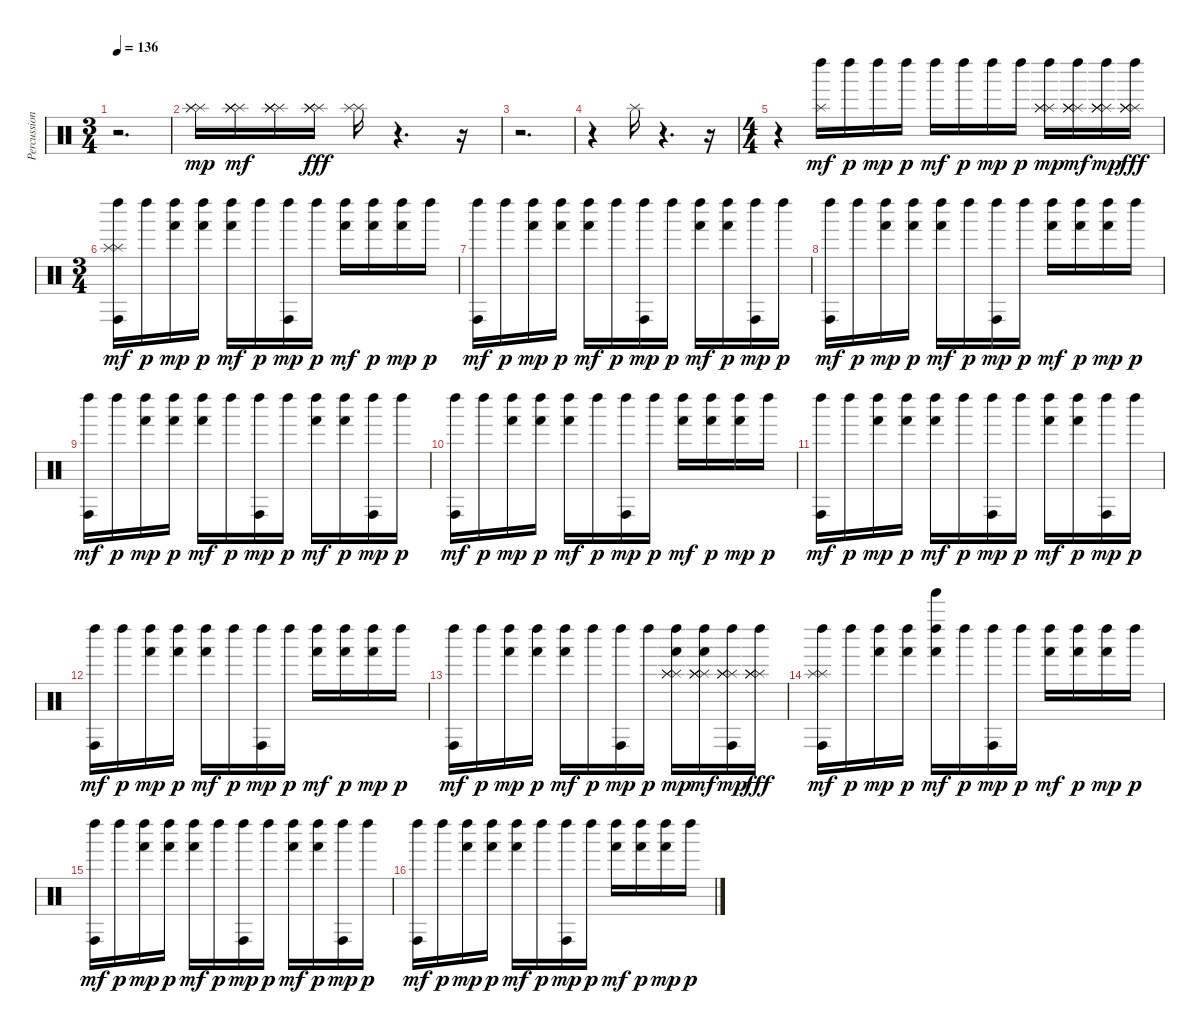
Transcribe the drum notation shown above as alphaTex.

\track ("Percussion" "Percussion") {instrument percussion}
\staff {score}
\articulation defaults
\ts (3 4)
\tempo 136
\clef neutral
\ks c
r.2{d dy f} |
("Splash (hit)" "Splash (hit)" "Splash (hit)").16{dy mp} ("Splash (hit)" "Splash (hit)" "Splash (hit)" "Splash (hit)").16{dy mf} ("Splash (hit)" "Splash (hit)" "Splash (hit)" "Splash (hit)").16 ("Splash (hit)" "Splash (hit)" "Splash (hit)" "Splash (hit)").16{dy fff} ("Splash (hit)" "Splash (hit)").16 r.4{d} r.16 |
r.2{d} |
r.4 "Splash (hit)".16 r.4{d} r.16 |
\ts (4 4)
r.4 ("Splash (hit)" "Left Maraca (hit)").16{dy mf} "Left Maraca (hit)".16{dy p} "Left Maraca (hit)".16{dy mp} "Left Maraca (hit)".16{dy p} "Left Maraca (hit)".16{dy mf} "Left Maraca (hit)".16{dy p} "Left Maraca (hit)".16{dy mp} "Left Maraca (hit)".16{dy p} ("Splash (hit)" "Left Maraca (hit)" "Splash (hit)" "Splash (hit)").16{dy mp} ("Splash (hit)" "Splash (hit)" "Left Maraca (hit)" "Splash (hit)" "Splash (hit)").16{dy mf} ("Splash (hit)" "Splash (hit)" "Left Maraca (hit)" "Splash (hit)" "Splash (hit)").16{dy mp} ("Splash (hit)" "Splash (hit)" "Left Maraca (hit)" "Splash (hit)" "Splash (hit)").16{dy fff} |
\ts (3 4)
("Splash (hit)" "Splash (hit)" "Conga high (hit)" "Left Maraca (hit)").16{dy mf} "Left Maraca (hit)".16{dy p} ("Hand (hit)" "Left Maraca (hit)").16{dy mp} ("Hand (hit)" "Left Maraca (hit)").16{dy p} ("Hand (hit)" "Left Maraca (hit)").16{dy mf} "Left Maraca (hit)".16{dy p} ("Conga high (hit)" "Left Maraca (hit)").16{dy mp} "Left Maraca (hit)".16{dy p} ("Hand (hit)" "Left Maraca (hit)").16{dy mf} ("Hand (hit)" "Left Maraca (hit)").16{dy p} ("Hand (hit)" "Left Maraca (hit)").16{dy mp} "Left Maraca (hit)".16{dy p} |
("Conga high (hit)" "Left Maraca (hit)").16{dy mf} "Left Maraca (hit)".16{dy p} ("Hand (hit)" "Left Maraca (hit)").16{dy mp} ("Hand (hit)" "Left Maraca (hit)").16{dy p} ("Hand (hit)" "Left Maraca (hit)").16{dy mf} "Left Maraca (hit)".16{dy p} ("Conga high (hit)" "Left Maraca (hit)").16{dy mp} "Left Maraca (hit)".16{dy p} ("Hand (hit)" "Left Maraca (hit)").16{dy mf} ("Hand (hit)" "Left Maraca (hit)").16{dy p} ("Conga high (hit)" "Left Maraca (hit)").16{dy mp} "Left Maraca (hit)".16{dy p} |
("Conga high (hit)" "Left Maraca (hit)").16{dy mf} "Left Maraca (hit)".16{dy p} ("Hand (hit)" "Left Maraca (hit)").16{dy mp} ("Hand (hit)" "Left Maraca (hit)").16{dy p} ("Hand (hit)" "Left Maraca (hit)").16{dy mf} "Left Maraca (hit)".16{dy p} ("Conga high (hit)" "Left Maraca (hit)").16{dy mp} "Left Maraca (hit)".16{dy p} ("Hand (hit)" "Left Maraca (hit)").16{dy mf} ("Hand (hit)" "Left Maraca (hit)").16{dy p} ("Hand (hit)" "Left Maraca (hit)").16{dy mp} "Left Maraca (hit)".16{dy p} |
("Conga high (hit)" "Left Maraca (hit)").16{dy mf} "Left Maraca (hit)".16{dy p} ("Hand (hit)" "Left Maraca (hit)").16{dy mp} ("Hand (hit)" "Left Maraca (hit)").16{dy p} ("Hand (hit)" "Left Maraca (hit)").16{dy mf} "Left Maraca (hit)".16{dy p} ("Conga high (hit)" "Left Maraca (hit)").16{dy mp} "Left Maraca (hit)".16{dy p} ("Hand (hit)" "Left Maraca (hit)").16{dy mf} ("Hand (hit)" "Left Maraca (hit)").16{dy p} ("Conga high (hit)" "Left Maraca (hit)").16{dy mp} "Left Maraca (hit)".16{dy p} |
("Conga high (hit)" "Left Maraca (hit)").16{dy mf} "Left Maraca (hit)".16{dy p} ("Hand (hit)" "Left Maraca (hit)").16{dy mp} ("Hand (hit)" "Left Maraca (hit)").16{dy p} ("Hand (hit)" "Left Maraca (hit)").16{dy mf} "Left Maraca (hit)".16{dy p} ("Conga high (hit)" "Left Maraca (hit)").16{dy mp} "Left Maraca (hit)".16{dy p} ("Hand (hit)" "Left Maraca (hit)").16{dy mf} ("Hand (hit)" "Left Maraca (hit)").16{dy p} ("Hand (hit)" "Left Maraca (hit)").16{dy mp} "Left Maraca (hit)".16{dy p} |
("Conga high (hit)" "Left Maraca (hit)").16{dy mf} "Left Maraca (hit)".16{dy p} ("Hand (hit)" "Left Maraca (hit)").16{dy mp} ("Hand (hit)" "Left Maraca (hit)").16{dy p} ("Hand (hit)" "Left Maraca (hit)").16{dy mf} "Left Maraca (hit)".16{dy p} ("Conga high (hit)" "Left Maraca (hit)").16{dy mp} "Left Maraca (hit)".16{dy p} ("Hand (hit)" "Left Maraca (hit)").16{dy mf} ("Hand (hit)" "Left Maraca (hit)").16{dy p} ("Conga high (hit)" "Left Maraca (hit)").16{dy mp} "Left Maraca (hit)".16{dy p} |
("Conga high (hit)" "Left Maraca (hit)").16{dy mf} "Left Maraca (hit)".16{dy p} ("Hand (hit)" "Left Maraca (hit)").16{dy mp} ("Hand (hit)" "Left Maraca (hit)").16{dy p} ("Hand (hit)" "Left Maraca (hit)").16{dy mf} "Left Maraca (hit)".16{dy p} ("Conga high (hit)" "Left Maraca (hit)").16{dy mp} "Left Maraca (hit)".16{dy p} ("Hand (hit)" "Left Maraca (hit)").16{dy mf} ("Hand (hit)" "Left Maraca (hit)").16{dy p} ("Hand (hit)" "Left Maraca (hit)").16{dy mp} "Left Maraca (hit)".16{dy p} |
("Conga high (hit)" "Left Maraca (hit)").16{dy mf} "Left Maraca (hit)".16{dy p} ("Hand (hit)" "Left Maraca (hit)").16{dy mp} ("Hand (hit)" "Left Maraca (hit)").16{dy p} ("Hand (hit)" "Left Maraca (hit)").16{dy mf} "Left Maraca (hit)".16{dy p} ("Conga high (hit)" "Left Maraca (hit)").16{dy mp} "Left Maraca (hit)".16{dy p} ("Hand (hit)" "Splash (hit)" "Left Maraca (hit)" "Splash (hit)" "Splash (hit)").16{dy mp} ("Splash (hit)" "Hand (hit)" "Splash (hit)" "Left Maraca (hit)" "Splash (hit)" "Splash (hit)").16{dy mf} ("Splash (hit)" "Conga high (hit)" "Splash (hit)" "Left Maraca (hit)" "Splash (hit)" "Splash (hit)").16{dy mp} ("Splash (hit)" "Splash (hit)" "Left Maraca (hit)" "Splash (hit)" "Splash (hit)").16{dy fff} |
("Splash (hit)" "Splash (hit)" "Conga high (hit)" "Left Maraca (hit)").16{dy mf} "Left Maraca (hit)".16{dy p} ("Hand (hit)" "Left Maraca (hit)").16{dy mp} ("Hand (hit)" "Left Maraca (hit)").16{dy p} ("Hand (hit)" "Tinkle Bell (hit)" "Left Maraca (hit)").16{dy mf} "Left Maraca (hit)".16{dy p} ("Conga high (hit)" "Left Maraca (hit)").16{dy mp} "Left Maraca (hit)".16{dy p} ("Hand (hit)" "Left Maraca (hit)").16{dy mf} ("Hand (hit)" "Left Maraca (hit)").16{dy p} ("Hand (hit)" "Left Maraca (hit)").16{dy mp} "Left Maraca (hit)".16{dy p} |
("Conga high (hit)" "Left Maraca (hit)").16{dy mf} "Left Maraca (hit)".16{dy p} ("Hand (hit)" "Left Maraca (hit)").16{dy mp} ("Hand (hit)" "Left Maraca (hit)").16{dy p} ("Hand (hit)" "Left Maraca (hit)").16{dy mf} "Left Maraca (hit)".16{dy p} ("Conga high (hit)" "Left Maraca (hit)").16{dy mp} "Left Maraca (hit)".16{dy p} ("Hand (hit)" "Left Maraca (hit)").16{dy mf} ("Hand (hit)" "Left Maraca (hit)").16{dy p} ("Conga high (hit)" "Left Maraca (hit)").16{dy mp} "Left Maraca (hit)".16{dy p} |
("Conga high (hit)" "Left Maraca (hit)").16{dy mf} "Left Maraca (hit)".16{dy p} ("Hand (hit)" "Left Maraca (hit)").16{dy mp} ("Hand (hit)" "Left Maraca (hit)").16{dy p} ("Hand (hit)" "Left Maraca (hit)").16{dy mf} "Left Maraca (hit)".16{dy p} ("Conga high (hit)" "Left Maraca (hit)").16{dy mp} "Left Maraca (hit)".16{dy p} ("Hand (hit)" "Left Maraca (hit)").16{dy mf} ("Hand (hit)" "Left Maraca (hit)").16{dy p} ("Hand (hit)" "Left Maraca (hit)").16{dy mp} "Left Maraca (hit)".16{dy p}
